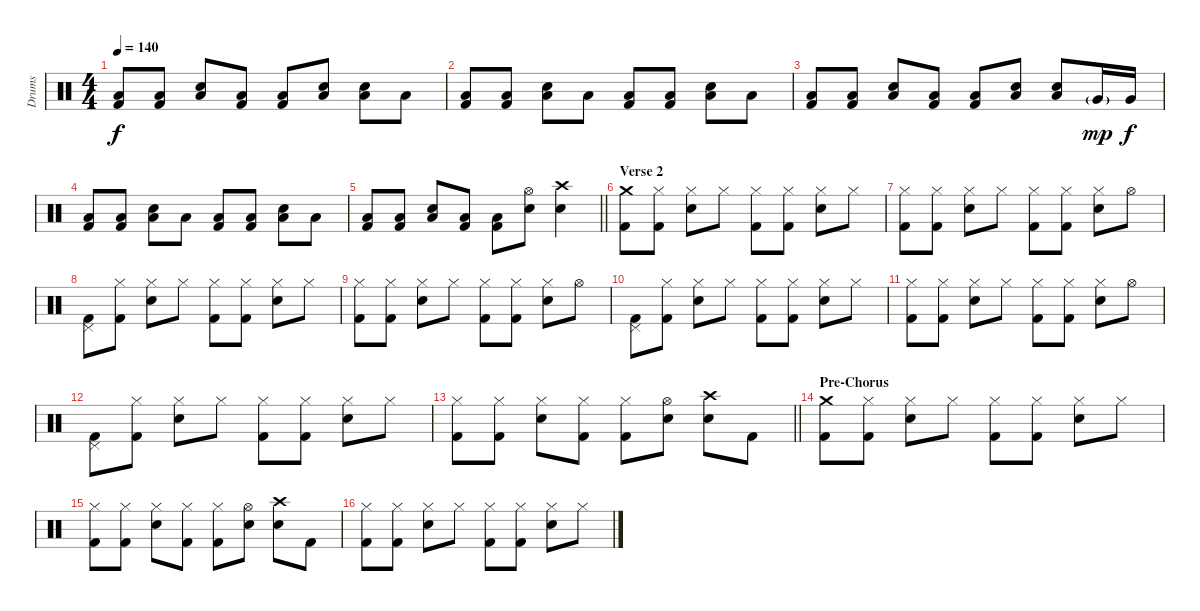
\track ("Drums" "Drums") {instrument percussion}
\staff {score}
\articulation defaults
\ts (4 4)
\tempo 140
\clef neutral
\ks c
("Low Floor Tom (hit)" "Kick (hit) 2").8{dy f} ("Low Floor Tom (hit)" "Kick (hit) 2").8 ("Low Floor Tom (hit)" "Electric Snare (hit)").8 ("Low Floor Tom (hit)" "Kick (hit) 2").8 ("Low Floor Tom (hit)" "Kick (hit) 2").8 ("Low Floor Tom (hit)" "Electric Snare (hit)").8 ("Low Floor Tom (hit)" "Electric Snare (hit)").8 "Low Floor Tom (hit)".8 |
("Low Floor Tom (hit)" "Kick (hit) 2").8 ("Low Floor Tom (hit)" "Kick (hit) 2").8 ("Low Floor Tom (hit)" "Electric Snare (hit)").8 "Low Floor Tom (hit)".8 ("Low Floor Tom (hit)" "Kick (hit) 2").8 ("Low Floor Tom (hit)" "Kick (hit) 2").8 ("Low Floor Tom (hit)" "Electric Snare (hit)").8 "Low Floor Tom (hit)".8 |
("Low Floor Tom (hit)" "Kick (hit) 2").8 ("Low Floor Tom (hit)" "Kick (hit) 2").8 ("Low Floor Tom (hit)" "Electric Snare (hit)").8 ("Low Floor Tom (hit)" "Kick (hit) 2").8 ("Low Floor Tom (hit)" "Kick (hit) 2").8 ("Low Floor Tom (hit)" "Electric Snare (hit)").8 ("Low Floor Tom (hit)" "Electric Snare (hit)").8 "Very Low Tom (hit)"{g}.16{dy mp} "Very Low Tom (hit)".16{dy f} |
("Low Floor Tom (hit)" "Kick (hit) 2").8 ("Low Floor Tom (hit)" "Kick (hit) 2").8 ("Low Floor Tom (hit)" "Electric Snare (hit)").8 "Low Floor Tom (hit)".8 ("Low Floor Tom (hit)" "Kick (hit) 2").8 ("Low Floor Tom (hit)" "Kick (hit) 2").8 ("Low Floor Tom (hit)" "Electric Snare (hit)").8 "Low Floor Tom (hit)".8 |
\barLineRight lightlight
("Low Floor Tom (hit)" "Kick (hit) 2").8 ("Low Floor Tom (hit)" "Kick (hit) 2").8 ("Low Floor Tom (hit)" "Electric Snare (hit)").8 ("Low Floor Tom (hit)" "Kick (hit) 2").8 ("Low Floor Tom (hit)" "Kick (hit) 2").8 ("Hi-Hat (open)" "Electric Snare (hit)").8 ("Crash high (hit)" "Electric Snare (hit)").4 |
\section ("" "Verse 2")
("Crash medium (hit)" "Kick (hit) 2").8 ("Hi-Hat (closed)" "Kick (hit) 2").8 ("Hi-Hat (closed)" "Electric Snare (hit)").8 "Hi-Hat (closed)".8 ("Hi-Hat (closed)" "Kick (hit) 2").8 ("Hi-Hat (closed)" "Kick (hit) 2").8 ("Hi-Hat (closed)" "Electric Snare (hit)").8 "Hi-Hat (closed)".8 |
("Hi-Hat (closed)" "Kick (hit) 2").8 ("Hi-Hat (closed)" "Kick (hit) 2").8 ("Hi-Hat (closed)" "Electric Snare (hit)").8 "Hi-Hat (closed)".8 ("Hi-Hat (closed)" "Kick (hit) 2").8 ("Hi-Hat (closed)" "Kick (hit) 2").8 ("Hi-Hat (closed)" "Electric Snare (hit)").8 "Hi-Hat (open)".8 |
("Pedal Hi-Hat (hit)" "Kick (hit) 2").8 ("Hi-Hat (closed)" "Kick (hit) 2").8 ("Hi-Hat (closed)" "Electric Snare (hit)").8 "Hi-Hat (closed)".8 ("Hi-Hat (closed)" "Kick (hit) 2").8 ("Hi-Hat (closed)" "Kick (hit) 2").8 ("Hi-Hat (closed)" "Electric Snare (hit)").8 "Hi-Hat (closed)".8 |
("Hi-Hat (closed)" "Kick (hit) 2").8 ("Hi-Hat (closed)" "Kick (hit) 2").8 ("Hi-Hat (closed)" "Electric Snare (hit)").8 "Hi-Hat (closed)".8 ("Hi-Hat (closed)" "Kick (hit) 2").8 ("Hi-Hat (closed)" "Kick (hit) 2").8 ("Hi-Hat (closed)" "Electric Snare (hit)").8 "Hi-Hat (open)".8 |
("Pedal Hi-Hat (hit)" "Kick (hit) 2").8 ("Hi-Hat (closed)" "Kick (hit) 2").8 ("Hi-Hat (closed)" "Electric Snare (hit)").8 "Hi-Hat (closed)".8 ("Hi-Hat (closed)" "Kick (hit) 2").8 ("Hi-Hat (closed)" "Kick (hit) 2").8 ("Hi-Hat (closed)" "Electric Snare (hit)").8 "Hi-Hat (closed)".8 |
("Hi-Hat (closed)" "Kick (hit) 2").8 ("Hi-Hat (closed)" "Kick (hit) 2").8 ("Hi-Hat (closed)" "Electric Snare (hit)").8 "Hi-Hat (closed)".8 ("Hi-Hat (closed)" "Kick (hit) 2").8 ("Hi-Hat (closed)" "Kick (hit) 2").8 ("Hi-Hat (closed)" "Electric Snare (hit)").8 "Hi-Hat (open)".8 |
("Pedal Hi-Hat (hit)" "Kick (hit) 2").8 ("Hi-Hat (closed)" "Kick (hit) 2").8 ("Hi-Hat (closed)" "Electric Snare (hit)").8 "Hi-Hat (closed)".8 ("Hi-Hat (closed)" "Kick (hit) 2").8 ("Hi-Hat (closed)" "Kick (hit) 2").8 ("Hi-Hat (closed)" "Electric Snare (hit)").8 "Hi-Hat (closed)".8 |
\barLineRight lightlight
("Hi-Hat (closed)" "Kick (hit) 2").8 ("Hi-Hat (closed)" "Kick (hit) 2").8 ("Hi-Hat (closed)" "Electric Snare (hit)").8 ("Hi-Hat (closed)" "Kick (hit) 2").8 ("Hi-Hat (closed)" "Kick (hit) 2").8 ("Hi-Hat (open)" "Electric Snare (hit)").8 ("Crash high (hit)" "Electric Snare (hit)").8 "Kick (hit) 2".8 |
\section ("" "Pre-Chorus")
("Crash medium (hit)" "Kick (hit) 2").8 ("Hi-Hat (closed)" "Kick (hit) 2").8 ("Hi-Hat (closed)" "Electric Snare (hit)").8 "Hi-Hat (closed)".8 ("Hi-Hat (closed)" "Kick (hit) 2").8 ("Hi-Hat (closed)" "Kick (hit) 2").8 ("Hi-Hat (closed)" "Electric Snare (hit)").8 "Hi-Hat (closed)".8 |
("Hi-Hat (closed)" "Kick (hit) 2").8 ("Hi-Hat (closed)" "Kick (hit) 2").8 ("Hi-Hat (closed)" "Electric Snare (hit)").8 ("Hi-Hat (closed)" "Kick (hit) 2").8 ("Hi-Hat (closed)" "Kick (hit) 2").8 ("Hi-Hat (open)" "Electric Snare (hit)").8 ("Crash high (hit)" "Electric Snare (hit)").8 "Kick (hit) 2".8 |
("Hi-Hat (closed)" "Kick (hit) 2").8 ("Hi-Hat (closed)" "Kick (hit) 2").8 ("Hi-Hat (closed)" "Electric Snare (hit)").8 "Hi-Hat (closed)".8 ("Hi-Hat (closed)" "Kick (hit) 2").8 ("Hi-Hat (closed)" "Kick (hit) 2").8 ("Hi-Hat (closed)" "Electric Snare (hit)").8 "Hi-Hat (closed)".8
